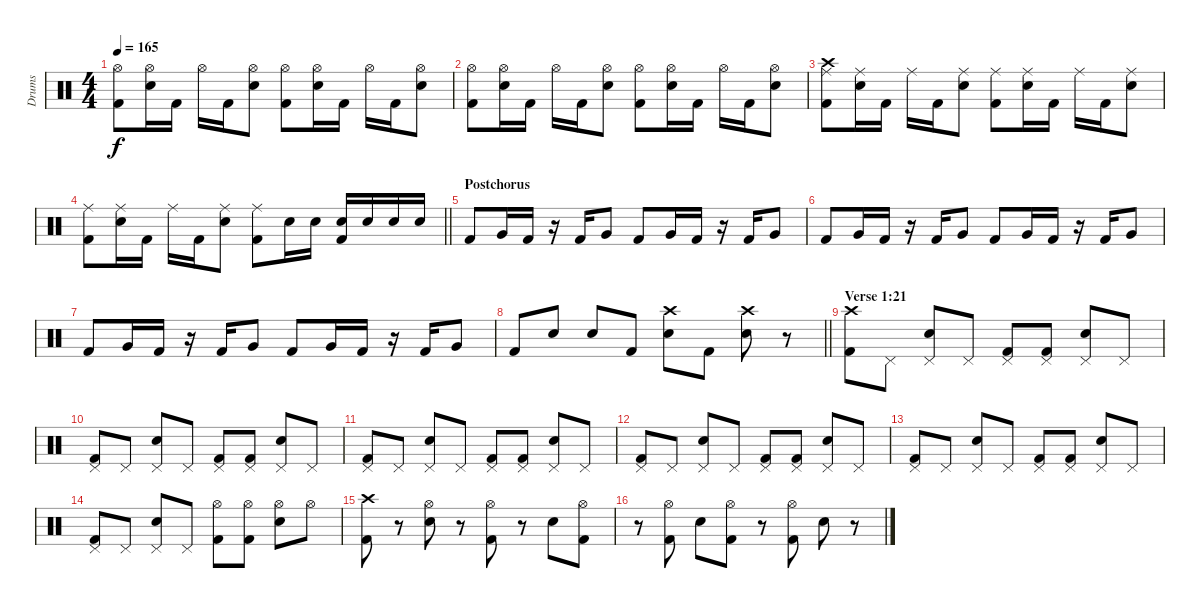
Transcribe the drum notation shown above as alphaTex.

\track ("Drums" "Drums") {instrument percussion}
\staff {score}
\articulation defaults
\ts (4 4)
\tempo 165
\clef neutral
\ks c
("Hi-Hat (open)" "Kick (hit) 2").8{dy f} ("Hi-Hat (open)" "Electric Snare (hit)").16 "Kick (hit) 2".16 "Hi-Hat (open)".16 "Kick (hit) 2".16 ("Hi-Hat (open)" "Electric Snare (hit)").8 ("Hi-Hat (open)" "Kick (hit) 2").8 ("Hi-Hat (open)" "Electric Snare (hit)").16 "Kick (hit) 2".16 "Hi-Hat (open)".16 "Kick (hit) 2".16 ("Hi-Hat (open)" "Electric Snare (hit)").8 |
("Hi-Hat (open)" "Kick (hit) 2").8 ("Hi-Hat (open)" "Electric Snare (hit)").16 "Kick (hit) 2".16 "Hi-Hat (open)".16 "Kick (hit) 2".16 ("Hi-Hat (open)" "Electric Snare (hit)").8 ("Hi-Hat (open)" "Kick (hit) 2").8 ("Hi-Hat (open)" "Electric Snare (hit)").16 "Kick (hit) 2".16 "Hi-Hat (open)".16 "Kick (hit) 2".16 ("Hi-Hat (open)" "Electric Snare (hit)").8 |
("Ride (middle)" "Crash high (hit)" "Kick (hit) 2").8 ("Ride (middle)" "Electric Snare (hit)").16 "Kick (hit) 2".16 "Ride (middle)".16 "Kick (hit) 2".16 ("Ride (middle)" "Electric Snare (hit)").8 ("Ride (middle)" "Kick (hit) 2").8 ("Ride (middle)" "Electric Snare (hit)").16 "Kick (hit) 2".16 "Ride (middle)".16 "Kick (hit) 2".16 ("Ride (middle)" "Electric Snare (hit)").8 |
\barLineRight lightlight
("Ride (middle)" "Kick (hit) 2").8 ("Ride (middle)" "Electric Snare (hit)").16 "Kick (hit) 2".16 "Ride (middle)".16 "Kick (hit) 2".16 ("Ride (middle)" "Electric Snare (hit)").8 ("Ride (middle)" "Kick (hit) 2").8 "Electric Snare (hit)".16 "Electric Snare (hit)".16 ("Kick (hit) 2" "Electric Snare (hit)").16 "Electric Snare (hit)".16 "Electric Snare (hit)".16 "Electric Snare (hit)".16 |
\section ("" "Postchorus")
"Kick (hit) 2".8 "Very Low Tom (hit)".16 "Kick (hit) 2".16 r.16 "Kick (hit) 2".16 "Very Low Tom (hit)".8 "Kick (hit) 2".8 "Very Low Tom (hit)".16 "Kick (hit) 2".16 r.16 "Kick (hit) 2".16 "Very Low Tom (hit)".8 |
"Kick (hit) 2".8 "Very Low Tom (hit)".16 "Kick (hit) 2".16 r.16 "Kick (hit) 2".16 "Very Low Tom (hit)".8 "Kick (hit) 2".8 "Very Low Tom (hit)".16 "Kick (hit) 2".16 r.16 "Kick (hit) 2".16 "Very Low Tom (hit)".8 |
"Kick (hit) 2".8 "Very Low Tom (hit)".16 "Kick (hit) 2".16 r.16 "Kick (hit) 2".16 "Very Low Tom (hit)".8 "Kick (hit) 2".8 "Very Low Tom (hit)".16 "Kick (hit) 2".16 r.16 "Kick (hit) 2".16 "Very Low Tom (hit)".8 |
\barLineRight lightlight "Kick (hit) 2".8 "Electric Snare (hit)".8 "Electric Snare (hit)".8 "Kick (hit) 2".8
("Electric Snare (hit)" "Crash high (hit)").8 "Kick (hit) 2".8 ("Electric Snare (hit)" "Crash high (hit)").8 r.8 |
\section ("" "Verse 1:21")
("Crash high (hit)" "Kick (hit) 2").8 "Pedal Hi-Hat (hit)".8 ("Pedal Hi-Hat (hit)" "Electric Snare (hit)").8 "Pedal Hi-Hat (hit)".8 ("Pedal Hi-Hat (hit)" "Kick (hit) 2").8 ("Pedal Hi-Hat (hit)" "Kick (hit) 2").8 ("Pedal Hi-Hat (hit)" "Electric Snare (hit)").8 "Pedal Hi-Hat (hit)".8 |
("Pedal Hi-Hat (hit)" "Kick (hit) 2").8 "Pedal Hi-Hat (hit)".8 ("Pedal Hi-Hat (hit)" "Electric Snare (hit)").8 "Pedal Hi-Hat (hit)".8 ("Pedal Hi-Hat (hit)" "Kick (hit) 2").8 ("Pedal Hi-Hat (hit)" "Kick (hit) 2").8 ("Pedal Hi-Hat (hit)" "Electric Snare (hit)").8 "Pedal Hi-Hat (hit)".8 |
("Pedal Hi-Hat (hit)" "Kick (hit) 2").8 "Pedal Hi-Hat (hit)".8 ("Pedal Hi-Hat (hit)" "Electric Snare (hit)").8 "Pedal Hi-Hat (hit)".8 ("Pedal Hi-Hat (hit)" "Kick (hit) 2").8 ("Pedal Hi-Hat (hit)" "Kick (hit) 2").8 ("Pedal Hi-Hat (hit)" "Electric Snare (hit)").8 "Pedal Hi-Hat (hit)".8 |
("Pedal Hi-Hat (hit)" "Kick (hit) 2").8 "Pedal Hi-Hat (hit)".8 ("Pedal Hi-Hat (hit)" "Electric Snare (hit)").8 "Pedal Hi-Hat (hit)".8 ("Pedal Hi-Hat (hit)" "Kick (hit) 2").8 ("Pedal Hi-Hat (hit)" "Kick (hit) 2").8 ("Pedal Hi-Hat (hit)" "Electric Snare (hit)").8 "Pedal Hi-Hat (hit)".8 |
("Pedal Hi-Hat (hit)" "Kick (hit) 2").8 "Pedal Hi-Hat (hit)".8 ("Pedal Hi-Hat (hit)" "Electric Snare (hit)").8 "Pedal Hi-Hat (hit)".8 ("Pedal Hi-Hat (hit)" "Kick (hit) 2").8 ("Pedal Hi-Hat (hit)" "Kick (hit) 2").8 ("Pedal Hi-Hat (hit)" "Electric Snare (hit)").8 "Pedal Hi-Hat (hit)".8 |
("Pedal Hi-Hat (hit)" "Kick (hit) 2").8 "Pedal Hi-Hat (hit)".8 ("Pedal Hi-Hat (hit)" "Electric Snare (hit)").8 "Pedal Hi-Hat (hit)".8 ("Hi-Hat (open)" "Kick (hit) 2").8 ("Hi-Hat (open)" "Kick (hit) 2").8 ("Hi-Hat (open)" "Electric Snare (hit)").8 "Hi-Hat (open)".8 |
("Crash high (hit)" "Kick (hit) 2").8 r.8 ("Hi-Hat (open)" "Electric Snare (hit)").8 r.8 ("Hi-Hat (open)" "Kick (hit) 2").8 r.8 "Electric Snare (hit)".8 ("Hi-Hat (open)" "Kick (hit) 2").8 |
r.8 ("Hi-Hat (open)" "Kick (hit) 2").8 "Electric Snare (hit)".8 ("Hi-Hat (open)" "Kick (hit) 2").8 r.8 ("Hi-Hat (open)" "Kick (hit) 2").8 "Electric Snare (hit)".8 r.8
